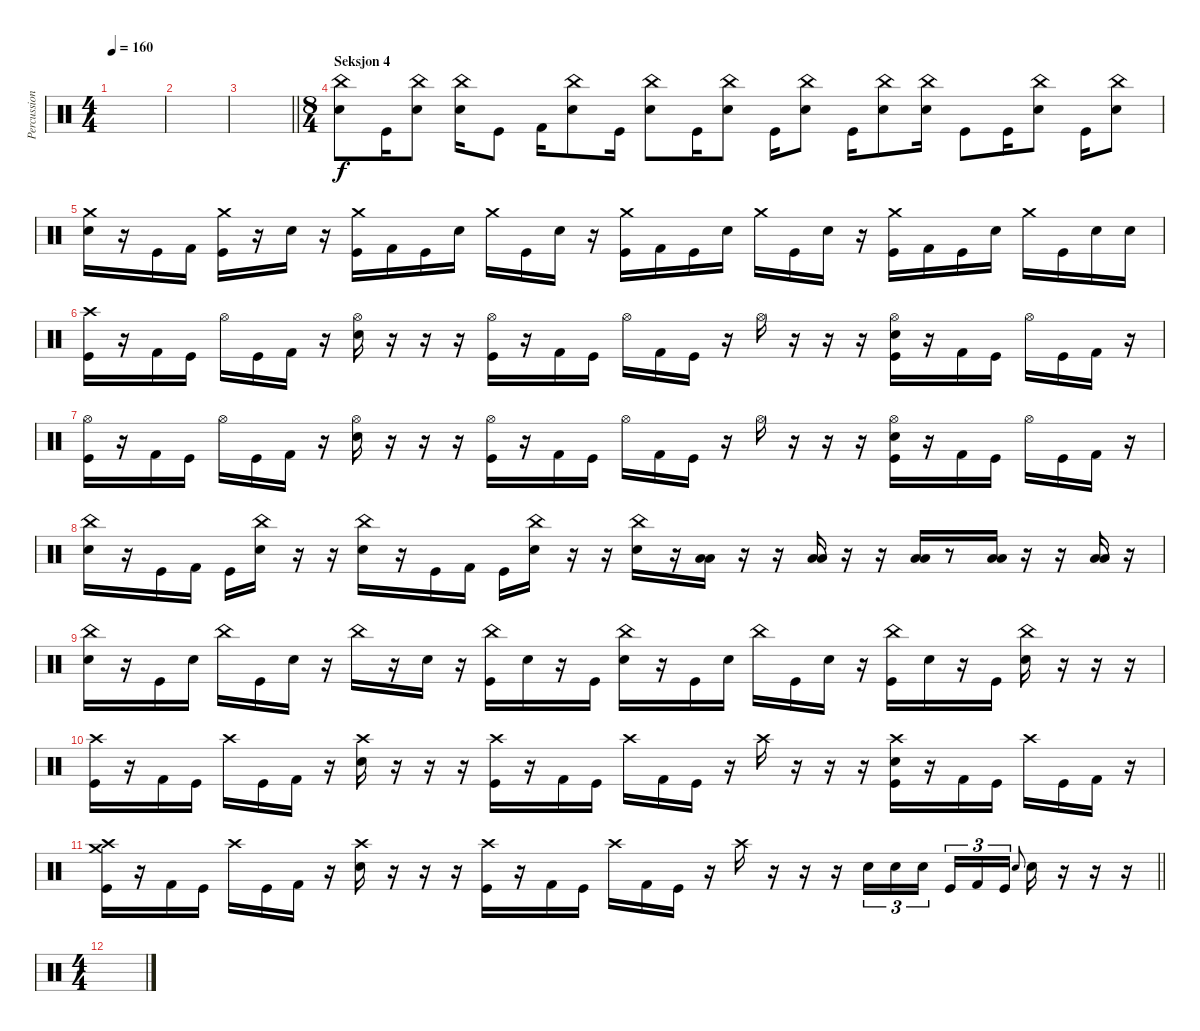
\track ("Percussion" "Percussion") {instrument percussion}
\staff {score}
\articulation defaults
\ts (4 4)
\tempo 160
\clef neutral
\ks c
|
|
\barLineRight lightlight
|
\ts (8 4)
\section ("" "Seksjon 4")
("China (hit)" "Snare (hit) 2").8 "Kick (hit)".16 ("China (hit)" "Snare (hit) 2").8 ("China (hit)" "Snare (hit) 2").16 "Kick (hit)".8 "Kick (hit) 2".16 ("China (hit)" "Snare (hit) 2").8 "Kick (hit)".16 ("China (hit)" "Snare (hit) 2").8 "Kick (hit)".16 ("China (hit)" "Snare (hit) 2").8 "Kick (hit)".16 ("China (hit)" "Snare (hit) 2").8 "Kick (hit)".16 ("China (hit)" "Snare (hit) 2").8 ("China (hit)" "Snare (hit) 2").16 "Kick (hit)".8 "Kick (hit)".16 ("China (hit)" "Snare (hit) 2").8 "Kick (hit)".16 ("China (hit)" "Snare (hit) 2").8 |
("Crash medium (hit)" "Snare (hit) 2").16 r.16 "Kick (hit)".16 "Kick (hit) 2".16 ("Crash medium (hit)" "Kick (hit)").16 r.16 "Snare (hit) 2".16 r.16 ("Crash medium (hit)" "Kick (hit)").16 "Kick (hit) 2".16 "Kick (hit)".16 "Snare (hit) 2".16 "Crash medium (hit)".16 "Kick (hit)".16 "Snare (hit) 2".16 r.16 ("Crash medium (hit)" "Kick (hit)").16 "Kick (hit) 2".16 "Kick (hit)".16 "Snare (hit) 2".16 "Crash medium (hit)".16 "Kick (hit)".16 "Snare (hit) 2".16 r.16 ("Crash medium (hit)" "Kick (hit)").16 "Kick (hit) 2".16 "Kick (hit)".16 "Snare (hit) 2".16 "Crash medium (hit)".16 "Kick (hit)".16 "Snare (hit) 2".16 "Snare (hit) 2".16 |
("Crash high (hit)" "Kick (hit)").16 r.16 "Kick (hit) 2".16 "Kick (hit)".16 "Hi-Hat (open)".16 "Kick (hit)".16 "Kick (hit) 2".16 r.16 ("Hi-Hat (open)" "Snare (hit) 2").16 r.16 r.16 r.16 ("Hi-Hat (open)" "Kick (hit)").16 r.16 "Kick (hit) 2".16 "Kick (hit)".16 "Hi-Hat (open)".16 "Kick (hit) 2".16 "Kick (hit)".16 r.16 "Hi-Hat (open)".16 r.16 r.16 r.16 ("Hi-Hat (open)" "Snare (hit) 2" "Kick (hit)").16 r.16 "Kick (hit) 2".16 "Kick (hit)".16 "Hi-Hat (open)".16 "Kick (hit)".16 "Kick (hit) 2".16 r.16 |
("Hi-Hat (open)" "Kick (hit)").16 r.16 "Kick (hit) 2".16 "Kick (hit)".16 "Hi-Hat (open)".16 "Kick (hit)".16 "Kick (hit) 2".16 r.16 ("Hi-Hat (open)" "Snare (hit) 2").16 r.16 r.16 r.16 ("Hi-Hat (open)" "Kick (hit)").16 r.16 "Kick (hit) 2".16 "Kick (hit)".16 "Hi-Hat (open)".16 "Kick (hit) 2".16 "Kick (hit)".16 r.16 "Hi-Hat (open)".16 r.16 r.16 r.16 ("Hi-Hat (open)" "Snare (hit) 2" "Kick (hit)").16 r.16 "Kick (hit) 2".16 "Kick (hit)".16 "Hi-Hat (open)".16 "Kick (hit)".16 "Kick (hit) 2".16 r.16 |
("China (hit)" "Snare (hit) 2").16 r.16 "Kick (hit)".16 "Kick (hit) 2".16 "Kick (hit)".16 ("China (hit)" "Snare (hit) 2").16 r.16 r.16 ("China (hit)" "Snare (hit) 2").16 r.16 "Kick (hit)".16 "Kick (hit) 2".16 "Kick (hit)".16 ("China (hit)" "Snare (hit) 2").16 r.16 r.16 ("China (hit)" "Snare (hit) 2").16 r.16 ("Low Tom (hit)" "Low Floor Tom (hit)").16 r.16 r.16 ("Low Tom (hit)" "Low Floor Tom (hit)").16 r.16 r.16 ("Low Tom (hit)" "Low Floor Tom (hit)").16 r.8 ("Low Tom (hit)" "Low Floor Tom (hit)").16 r.16 r.16 ("Low Tom (hit)" "Low Floor Tom (hit)").16 r.16 |
("China (hit)" "Snare (hit) 2").16 r.16 "Kick (hit)".16 "Snare (hit) 2".16 "China (hit)".16 "Kick (hit)".16 "Snare (hit) 2".16 r.16 "China (hit)".16 r.16 "Snare (hit) 2".16 r.16 ("China (hit)" "Kick (hit)").16 "Snare (hit) 2".16 r.16 "Kick (hit)".16 ("China (hit)" "Snare (hit) 2").16 r.16 "Kick (hit)".16 "Snare (hit) 2".16 "China (hit)".16 "Kick (hit)".16 "Snare (hit) 2".16 r.16 ("China (hit)" "Kick (hit)").16 "Snare (hit) 2".16 r.16 "Kick (hit)".16 ("China (hit)" "Snare (hit) 2").16 r.16 r.16 r.16 |
("Crash high (hit)" "Kick (hit)").16 r.16 "Kick (hit) 2".16 "Kick (hit)".16 "Crash high (hit)".16 "Kick (hit)".16 "Kick (hit) 2".16 r.16 ("Crash high (hit)" "Snare (hit) 2").16 r.16 r.16 r.16 ("Crash high (hit)" "Kick (hit)").16 r.16 "Kick (hit) 2".16 "Kick (hit)".16 "Crash high (hit)".16 "Kick (hit) 2".16 "Kick (hit)".16 r.16 "Crash high (hit)".16 r.16 r.16 r.16 ("Crash high (hit)" "Snare (hit) 2" "Kick (hit)").16 r.16 "Kick (hit) 2".16 "Kick (hit)".16 "Crash high (hit)".16 "Kick (hit)".16 "Kick (hit) 2".16 r.16 |
\barLineRight lightlight
("Crash high (hit)" "Crash medium (hit)" "Kick (hit)").16 r.16 "Kick (hit) 2".16 "Kick (hit)".16 "Crash high (hit)".16 "Kick (hit)".16 "Kick (hit) 2".16 r.16 ("Crash high (hit)" "Snare (hit) 2").16 r.16 r.16 r.16 ("Crash high (hit)" "Kick (hit)").16 r.16 "Kick (hit) 2".16 "Kick (hit)".16 "Crash high (hit)".16 "Kick (hit) 2".16 "Kick (hit)".16 r.16 "Crash high (hit)".16 r.16 r.16 r.16 "Snare (hit) 2".16{tu (3 2)} "Snare (hit) 2".16{tu (3 2)} "Snare (hit) 2".16{tu (3 2) beam splitsecondary} "Kick (hit)".16{tu (3 2)} "Kick (hit) 2".16{tu (3 2)} "Kick (hit)".16{tu (3 2)} "Snare (hit) 2".8{gr onbeat} "Snare (hit) 2".16 r.16 r.16 r.16 |
\ts (4 4)
